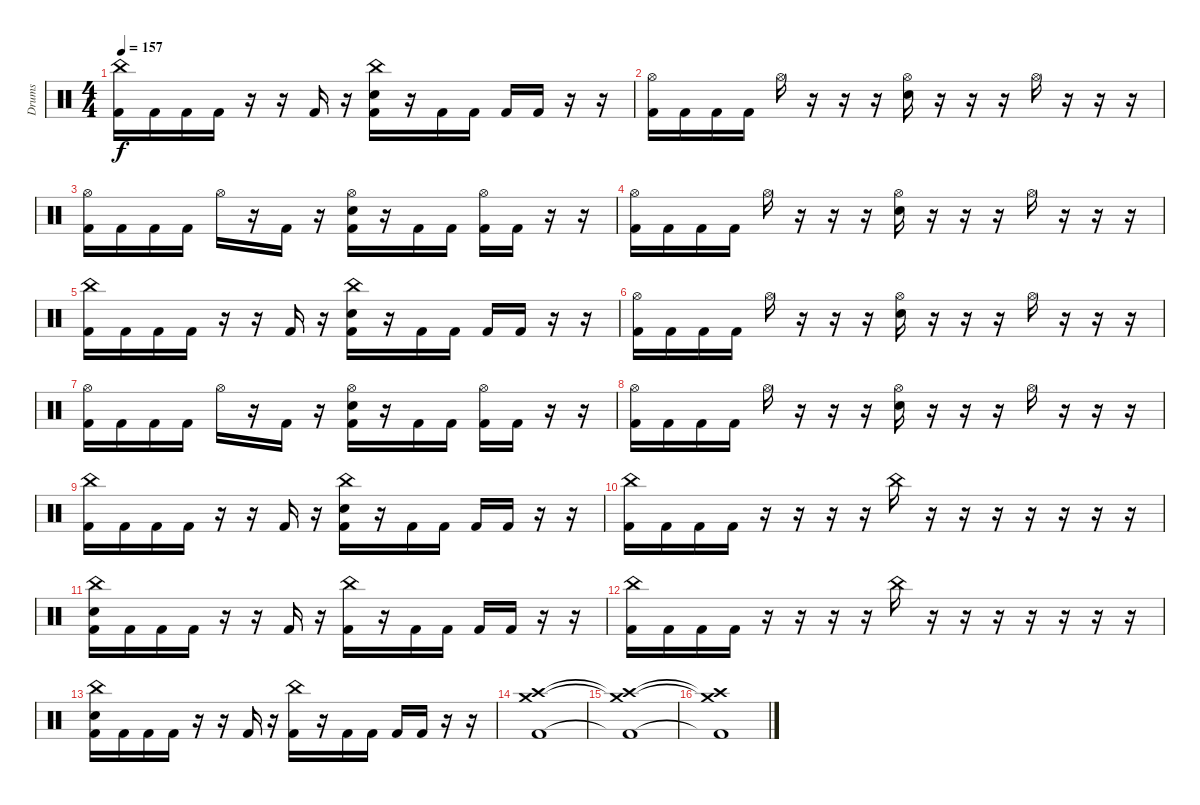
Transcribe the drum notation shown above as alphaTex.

\track ("Drums" "Drums") {instrument percussion}
\staff {score}
\articulation defaults
\ts (4 4)
\tempo 157
\clef neutral
\ks c
("China (hit)" "Kick (hit) 2").16{dy f} "Kick (hit) 2".16 "Kick (hit) 2".16 "Kick (hit) 2".16 r.16 r.16 "Kick (hit) 2".16 r.16 ("China (hit)" "Electric Snare (hit)" "Kick (hit) 2").16 r.16 "Kick (hit) 2".16 "Kick (hit) 2".16 "Kick (hit) 2".16 "Kick (hit) 2".16 r.16 r.16 |
("Hi-Hat (open)" "Kick (hit) 2").16 "Kick (hit) 2".16 "Kick (hit) 2".16 "Kick (hit) 2".16 "Hi-Hat (open)".16 r.16 r.16 r.16 ("Hi-Hat (open)" "Electric Snare (hit)").16 r.16 r.16 r.16 "Hi-Hat (open)".16 r.16 r.16 r.16 |
("Hi-Hat (open)" "Kick (hit) 2").16 "Kick (hit) 2".16 "Kick (hit) 2".16 "Kick (hit) 2".16 "Hi-Hat (open)".16 r.16 "Kick (hit) 2".16 r.16 ("Hi-Hat (open)" "Electric Snare (hit)" "Kick (hit) 2").16 r.16 "Kick (hit) 2".16 "Kick (hit) 2".16 ("Hi-Hat (open)" "Kick (hit) 2").16 "Kick (hit) 2".16 r.16 r.16 |
("Hi-Hat (open)" "Kick (hit) 2").16 "Kick (hit) 2".16 "Kick (hit) 2".16 "Kick (hit) 2".16 "Hi-Hat (open)".16 r.16 r.16 r.16 ("Hi-Hat (open)" "Electric Snare (hit)").16 r.16 r.16 r.16 "Hi-Hat (open)".16 r.16 r.16 r.16 |
("China (hit)" "Kick (hit) 2").16 "Kick (hit) 2".16 "Kick (hit) 2".16 "Kick (hit) 2".16 r.16 r.16 "Kick (hit) 2".16 r.16 ("China (hit)" "Electric Snare (hit)" "Kick (hit) 2").16 r.16 "Kick (hit) 2".16 "Kick (hit) 2".16 "Kick (hit) 2".16 "Kick (hit) 2".16 r.16 r.16 |
("Hi-Hat (open)" "Kick (hit) 2").16 "Kick (hit) 2".16 "Kick (hit) 2".16 "Kick (hit) 2".16 "Hi-Hat (open)".16 r.16 r.16 r.16 ("Hi-Hat (open)" "Electric Snare (hit)").16 r.16 r.16 r.16 "Hi-Hat (open)".16 r.16 r.16 r.16 |
("Hi-Hat (open)" "Kick (hit) 2").16 "Kick (hit) 2".16 "Kick (hit) 2".16 "Kick (hit) 2".16 "Hi-Hat (open)".16 r.16 "Kick (hit) 2".16 r.16 ("Hi-Hat (open)" "Electric Snare (hit)" "Kick (hit) 2").16 r.16 "Kick (hit) 2".16 "Kick (hit) 2".16 ("Hi-Hat (open)" "Kick (hit) 2").16 "Kick (hit) 2".16 r.16 r.16 |
("Hi-Hat (open)" "Kick (hit) 2").16 "Kick (hit) 2".16 "Kick (hit) 2".16 "Kick (hit) 2".16 "Hi-Hat (open)".16 r.16 r.16 r.16 ("Hi-Hat (open)" "Electric Snare (hit)").16 r.16 r.16 r.16 "Hi-Hat (open)".16 r.16 r.16 r.16 |
("China (hit)" "Kick (hit) 2").16 "Kick (hit) 2".16 "Kick (hit) 2".16 "Kick (hit) 2".16 r.16 r.16 "Kick (hit) 2".16 r.16 ("China (hit)" "Electric Snare (hit)" "Kick (hit) 2").16 r.16 "Kick (hit) 2".16 "Kick (hit) 2".16 "Kick (hit) 2".16 "Kick (hit) 2".16 r.16 r.16 |
("China (hit)" "Kick (hit) 2").16 "Kick (hit) 2".16 "Kick (hit) 2".16 "Kick (hit) 2".16 r.16 r.16 r.16 r.16 "China (hit)".16 r.16 r.16 r.16 r.16 r.16 r.16 r.16 |
("China (hit)" "Electric Snare (hit)" "Kick (hit) 2").16 "Kick (hit) 2".16 "Kick (hit) 2".16 "Kick (hit) 2".16 r.16 r.16 "Kick (hit) 2".16 r.16 ("China (hit)" "Kick (hit) 2").16 r.16 "Kick (hit) 2".16 "Kick (hit) 2".16 "Kick (hit) 2".16 "Kick (hit) 2".16 r.16 r.16 |
("China (hit)" "Kick (hit) 2").16 "Kick (hit) 2".16 "Kick (hit) 2".16 "Kick (hit) 2".16 r.16 r.16 r.16 r.16 "China (hit)".16 r.16 r.16 r.16 r.16 r.16 r.16 r.16 |
("China (hit)" "Electric Snare (hit)" "Kick (hit) 2").16 "Kick (hit) 2".16 "Kick (hit) 2".16 "Kick (hit) 2".16 r.16 r.16 "Kick (hit) 2".16 r.16 ("China (hit)" "Kick (hit) 2").16 r.16 "Kick (hit) 2".16 "Kick (hit) 2".16 "Kick (hit) 2".16 "Kick (hit) 2".16 r.16 r.16 |
("Crash medium (hit)" "Crash high (hit)" "Kick (hit) 2").1 |
("Crash medium (hit)"{t} "Crash high (hit)"{t} "Kick (hit) 2"{t}).1 |
("Crash medium (hit)"{t} "Crash high (hit)"{t} "Kick (hit) 2"{t}).1
